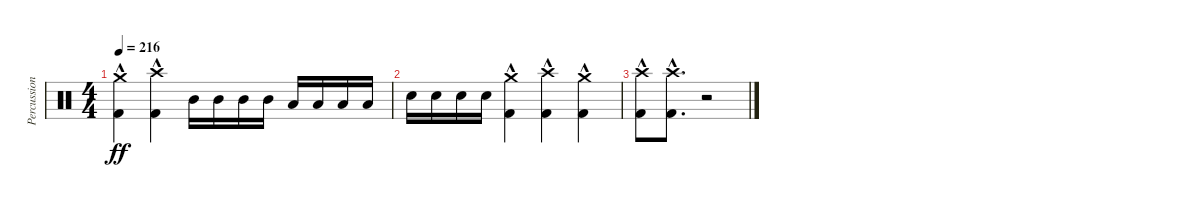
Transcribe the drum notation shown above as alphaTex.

\track ("Percussions" "Percussion") {instrument percussion}
\staff {score}
\articulation defaults
\ts (4 4)
\tempo 216
\clef neutral
\ks c
("Crash medium (hit)"{hac} "Kick (hit) 2"{hac}).4{dy ff} ("Crash high (hit)"{hac} "Kick (hit) 2"{hac}).4 "Mid Tom (hit)".16 "Mid Tom (hit)".16 "Mid Tom (hit)".16 "Mid Tom (hit)".16 "Low Tom (hit)".16 "Low Tom (hit)".16 "Low Tom (hit)".16 "Low Tom (hit)".16 |
"Electric Snare (hit)".16 "Electric Snare (hit)".16 "Electric Snare (hit)".16 "Electric Snare (hit)".16 ("Crash medium (hit)"{hac} "Kick (hit) 2").4 ("Crash high (hit)"{hac} "Kick (hit) 2").4 ("Crash medium (hit)"{hac} "Kick (hit) 2").4 |
("Crash high (hit)"{hac} "Kick (hit) 2").8 ("Crash high (hit)"{hac} "Kick (hit) 2").8{d} r.2{volume 3}
